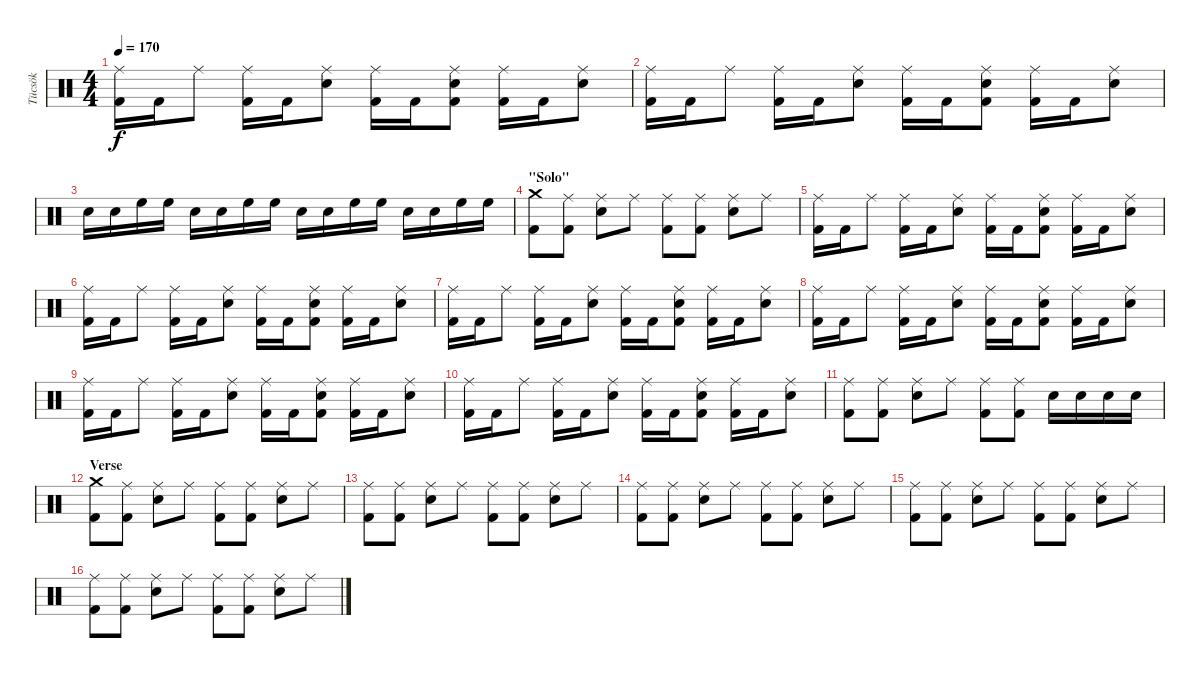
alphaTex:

\track ("Tücsök" "Tücsök") {instrument percussion}
\staff {score}
\articulation defaults
\ts (4 4)
\tempo 170
\clef neutral
\ks c
("Ride (middle)" "Kick (hit) 2").16{dy f} "Kick (hit) 2".16 "Ride (middle)".8 ("Ride (middle)" "Kick (hit) 2").16 "Kick (hit) 2".16 ("Ride (middle)" "Electric Snare (hit)").8 ("Ride (middle)" "Kick (hit) 2").16 "Kick (hit) 2".16 ("Ride (middle)" "Electric Snare (hit)" "Kick (hit) 2").8 ("Ride (middle)" "Kick (hit) 2").16 "Kick (hit) 2".16 ("Ride (middle)" "Electric Snare (hit)").8 |
("Ride (middle)" "Kick (hit) 2").16 "Kick (hit) 2".16 "Ride (middle)".8 ("Ride (middle)" "Kick (hit) 2").16 "Kick (hit) 2".16 ("Ride (middle)" "Electric Snare (hit)").8 ("Ride (middle)" "Kick (hit) 2").16 "Kick (hit) 2".16 ("Ride (middle)" "Electric Snare (hit)" "Kick (hit) 2").8 ("Ride (middle)" "Kick (hit) 2").16 "Kick (hit) 2".16 ("Ride (middle)" "Electric Snare (hit)").8 |
"Electric Snare (hit)".16 "Electric Snare (hit)".16 "High Floor Tom (hit)".16 "High Floor Tom (hit)".16 "Electric Snare (hit)".16 "Electric Snare (hit)".16 "High Floor Tom (hit)".16 "High Floor Tom (hit)".16 "Electric Snare (hit)".16 "Electric Snare (hit)".16 "High Floor Tom (hit)".16 "High Floor Tom (hit)".16 "Electric Snare (hit)".16 "Electric Snare (hit)".16 "High Floor Tom (hit)".16 "High Floor Tom (hit)".16 |
\section ("" "\"Solo\"")
("Crash medium (hit)" "Kick (hit) 2").8 ("Ride (middle)" "Kick (hit) 2").8 ("Ride (middle)" "Electric Snare (hit)").8 "Ride (middle)".8 ("Ride (middle)" "Kick (hit) 2").8 ("Ride (middle)" "Kick (hit) 2").8 ("Ride (middle)" "Electric Snare (hit)").8 "Ride (middle)".8 |
("Ride (middle)" "Kick (hit) 2").16 "Kick (hit) 2".16 "Ride (middle)".8 ("Ride (middle)" "Kick (hit) 2").16 "Kick (hit) 2".16 ("Ride (middle)" "Electric Snare (hit)").8 ("Ride (middle)" "Kick (hit) 2").16 "Kick (hit) 2".16 ("Ride (middle)" "Electric Snare (hit)" "Kick (hit) 2").8 ("Ride (middle)" "Kick (hit) 2").16 "Kick (hit) 2".16 ("Ride (middle)" "Electric Snare (hit)").8 |
("Ride (middle)" "Kick (hit) 2").16 "Kick (hit) 2".16 "Ride (middle)".8 ("Ride (middle)" "Kick (hit) 2").16 "Kick (hit) 2".16 ("Ride (middle)" "Electric Snare (hit)").8 ("Ride (middle)" "Kick (hit) 2").16 "Kick (hit) 2".16 ("Ride (middle)" "Electric Snare (hit)" "Kick (hit) 2").8 ("Ride (middle)" "Kick (hit) 2").16 "Kick (hit) 2".16 ("Ride (middle)" "Electric Snare (hit)").8 |
("Ride (middle)" "Kick (hit) 2").16 "Kick (hit) 2".16 "Ride (middle)".8 ("Ride (middle)" "Kick (hit) 2").16 "Kick (hit) 2".16 ("Ride (middle)" "Electric Snare (hit)").8 ("Ride (middle)" "Kick (hit) 2").16 "Kick (hit) 2".16 ("Ride (middle)" "Electric Snare (hit)" "Kick (hit) 2").8 ("Ride (middle)" "Kick (hit) 2").16 "Kick (hit) 2".16 ("Ride (middle)" "Electric Snare (hit)").8 |
("Ride (middle)" "Kick (hit) 2").16 "Kick (hit) 2".16 "Ride (middle)".8 ("Ride (middle)" "Kick (hit) 2").16 "Kick (hit) 2".16 ("Ride (middle)" "Electric Snare (hit)").8 ("Ride (middle)" "Kick (hit) 2").16 "Kick (hit) 2".16 ("Ride (middle)" "Electric Snare (hit)" "Kick (hit) 2").8 ("Ride (middle)" "Kick (hit) 2").16 "Kick (hit) 2".16 ("Ride (middle)" "Electric Snare (hit)").8 |
("Ride (middle)" "Kick (hit) 2").16 "Kick (hit) 2".16 "Ride (middle)".8 ("Ride (middle)" "Kick (hit) 2").16 "Kick (hit) 2".16 ("Ride (middle)" "Electric Snare (hit)").8 ("Ride (middle)" "Kick (hit) 2").16 "Kick (hit) 2".16 ("Ride (middle)" "Electric Snare (hit)" "Kick (hit) 2").8 ("Ride (middle)" "Kick (hit) 2").16 "Kick (hit) 2".16 ("Ride (middle)" "Electric Snare (hit)").8 |
("Ride (middle)" "Kick (hit) 2").16 "Kick (hit) 2".16 "Ride (middle)".8 ("Ride (middle)" "Kick (hit) 2").16 "Kick (hit) 2".16 ("Ride (middle)" "Electric Snare (hit)").8 ("Ride (middle)" "Kick (hit) 2").16 "Kick (hit) 2".16 ("Ride (middle)" "Electric Snare (hit)" "Kick (hit) 2").8 ("Ride (middle)" "Kick (hit) 2").16 "Kick (hit) 2".16 ("Ride (middle)" "Electric Snare (hit)").8 |
("Ride (middle)" "Kick (hit) 2").8 ("Ride (middle)" "Kick (hit) 2").8 ("Ride (middle)" "Electric Snare (hit)").8 "Ride (middle)".8 ("Ride (middle)" "Kick (hit) 2").8 ("Ride (middle)" "Kick (hit) 2").8 "Electric Snare (hit)".16 "Electric Snare (hit)".16 "Electric Snare (hit)".16 "Electric Snare (hit)".16 |
\section ("" "Verse")
("Crash medium (hit)" "Kick (hit) 2").8 ("Ride (middle)" "Kick (hit) 2").8 ("Ride (middle)" "Electric Snare (hit)").8 "Ride (middle)".8 ("Ride (middle)" "Kick (hit) 2").8 ("Ride (middle)" "Kick (hit) 2").8 ("Ride (middle)" "Electric Snare (hit)").8 "Ride (middle)".8 |
("Ride (middle)" "Kick (hit) 2").8 ("Ride (middle)" "Kick (hit) 2").8 ("Ride (middle)" "Electric Snare (hit)").8 "Ride (middle)".8 ("Ride (middle)" "Kick (hit) 2").8 ("Ride (middle)" "Kick (hit) 2").8 ("Ride (middle)" "Electric Snare (hit)").8 "Ride (middle)".8 |
("Ride (middle)" "Kick (hit) 2").8 ("Ride (middle)" "Kick (hit) 2").8 ("Ride (middle)" "Electric Snare (hit)").8 "Ride (middle)".8 ("Ride (middle)" "Kick (hit) 2").8 ("Ride (middle)" "Kick (hit) 2").8 ("Ride (middle)" "Electric Snare (hit)").8 "Ride (middle)".8 |
("Ride (middle)" "Kick (hit) 2").8 ("Ride (middle)" "Kick (hit) 2").8 ("Ride (middle)" "Electric Snare (hit)").8 "Ride (middle)".8 ("Ride (middle)" "Kick (hit) 2").8 ("Ride (middle)" "Kick (hit) 2").8 ("Ride (middle)" "Electric Snare (hit)").8 "Ride (middle)".8 |
("Ride (middle)" "Kick (hit) 2").8 ("Ride (middle)" "Kick (hit) 2").8 ("Ride (middle)" "Electric Snare (hit)").8 "Ride (middle)".8 ("Ride (middle)" "Kick (hit) 2").8 ("Ride (middle)" "Kick (hit) 2").8 ("Ride (middle)" "Electric Snare (hit)").8 "Ride (middle)".8
